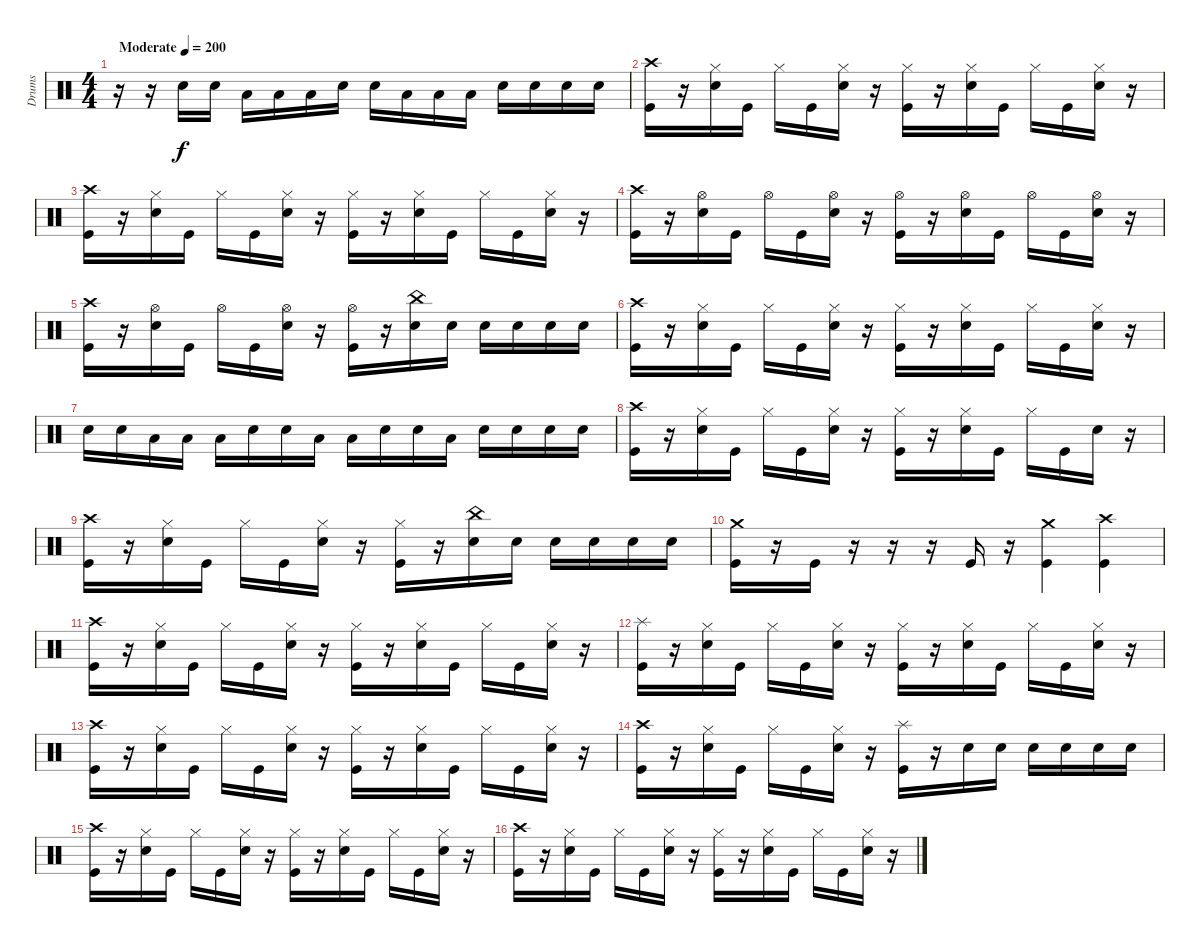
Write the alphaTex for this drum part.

\track ("Drums" "Drums") {instrument percussion}
\staff {score}
\articulation defaults
\ts (4 4)
\tempo (200 "Moderate")
\tempo 165
\tempo (200 "Moderate")
\clef neutral
\ks c
r.16{dy f} r.16 "Snare (hit) 2".16 "Snare (hit) 2".16 "Low Tom (hit)".16 "Low Tom (hit)".16 "Low Tom (hit)".16 "Snare (hit) 2".16 "Snare (hit) 2".16 "Low Tom (hit)".16 "Low Tom (hit)".16 "Low Tom (hit)".16 "Snare (hit) 2".16 "Snare (hit) 2".16 "Snare (hit) 2".16 "Snare (hit) 2".16 |
("Crash high (hit)" "Kick (hit)").16 r.16 ("Hi-Hat (closed)" "Snare (hit) 2").16 "Kick (hit)".16 "Hi-Hat (closed)".16 "Kick (hit)".16 ("Hi-Hat (closed)" "Snare (hit) 2").16 r.16 ("Hi-Hat (closed)" "Kick (hit)").16 r.16 ("Hi-Hat (closed)" "Snare (hit) 2").16 "Kick (hit)".16 "Hi-Hat (closed)".16 "Kick (hit)".16 ("Hi-Hat (closed)" "Snare (hit) 2").16 r.16 |
("Crash high (hit)" "Kick (hit)").16 r.16 ("Hi-Hat (closed)" "Snare (hit) 2").16 "Kick (hit)".16 "Hi-Hat (closed)".16 "Kick (hit)".16 ("Hi-Hat (closed)" "Snare (hit) 2").16 r.16 ("Hi-Hat (closed)" "Kick (hit)").16 r.16 ("Hi-Hat (closed)" "Snare (hit) 2").16 "Kick (hit)".16 "Hi-Hat (closed)".16 "Kick (hit)".16 ("Hi-Hat (closed)" "Snare (hit) 2").16 r.16 |
("Crash high (hit)" "Kick (hit)").16 r.16 ("Hi-Hat (open)" "Snare (hit) 2").16 "Kick (hit)".16 "Hi-Hat (open)".16 "Kick (hit)".16 ("Hi-Hat (open)" "Snare (hit) 2").16 r.16 ("Hi-Hat (open)" "Kick (hit)").16 r.16 ("Hi-Hat (open)" "Snare (hit) 2").16 "Kick (hit)".16 "Hi-Hat (open)".16 "Kick (hit)".16 ("Hi-Hat (open)" "Snare (hit) 2").16 r.16 |
("Crash high (hit)" "Kick (hit)").16 r.16 ("Hi-Hat (open)" "Snare (hit) 2").16 "Kick (hit)".16 "Hi-Hat (open)".16 "Kick (hit)".16 ("Hi-Hat (open)" "Snare (hit) 2").16 r.16 ("Hi-Hat (open)" "Kick (hit)").16 r.16 ("China (hit)" "Snare (hit) 2").16 "Snare (hit) 2".16 "Snare (hit) 2".16 "Snare (hit) 2".16 "Snare (hit) 2".16 "Snare (hit) 2".16 |
("Crash high (hit)" "Kick (hit)").16 r.16 ("Hi-Hat (closed)" "Snare (hit) 2").16 "Kick (hit)".16 "Hi-Hat (closed)".16 "Kick (hit)".16 ("Hi-Hat (closed)" "Snare (hit) 2").16 r.16 ("Hi-Hat (closed)" "Kick (hit)").16 r.16 ("Hi-Hat (closed)" "Snare (hit) 2").16 "Kick (hit)".16 "Hi-Hat (closed)".16 "Kick (hit)".16 ("Hi-Hat (closed)" "Snare (hit) 2").16 r.16 |
"Snare (hit) 2".16 "Snare (hit) 2".16 "Low Tom (hit)".16 "Low Tom (hit)".16 "Low Tom (hit)".16 "Snare (hit) 2".16 "Snare (hit) 2".16 "Low Tom (hit)".16 "Low Tom (hit)".16 "Snare (hit) 2".16 "Snare (hit) 2".16 "Low Tom (hit)".16 "Snare (hit) 2".16 "Snare (hit) 2".16 "Snare (hit) 2".16 "Snare (hit) 2".16 |
("Crash high (hit)" "Kick (hit)").16 r.16 ("Hi-Hat (closed)" "Snare (hit) 2").16 "Kick (hit)".16 "Hi-Hat (closed)".16 "Kick (hit)".16 ("Hi-Hat (closed)" "Snare (hit) 2").16 r.16 ("Hi-Hat (closed)" "Kick (hit)").16 r.16 ("Hi-Hat (closed)" "Snare (hit) 2").16 "Kick (hit)".16 "Hi-Hat (closed)".16 "Kick (hit)".16 "Snare (hit) 2".16 r.16 |
("Crash high (hit)" "Kick (hit)").16 r.16 ("Hi-Hat (closed)" "Snare (hit) 2").16 "Kick (hit)".16 "Hi-Hat (closed)".16 "Kick (hit)".16 ("Hi-Hat (closed)" "Snare (hit) 2").16 r.16 ("Hi-Hat (closed)" "Kick (hit)").16 r.16 ("China (hit)" "Snare (hit) 2").16 "Snare (hit) 2".16 "Snare (hit) 2".16 "Snare (hit) 2".16 "Snare (hit) 2".16 "Snare (hit) 2".16 |
("Crash medium (hit)" "Kick (hit)").16 r.16 "Kick (hit)".16 r.16 r.16 r.16 "Kick (hit)".16 r.16 ("Crash medium (hit)" "Kick (hit)").4 ("Crash high (hit)" "Kick (hit)").4 |
("Crash high (hit)" "Kick (hit)").16 r.16 ("Hi-Hat (closed)" "Snare (hit) 2").16 "Kick (hit)".16 "Hi-Hat (closed)".16 "Kick (hit)".16 ("Hi-Hat (closed)" "Snare (hit) 2").16 r.16 ("Hi-Hat (closed)" "Kick (hit)").16 r.16 ("Hi-Hat (closed)" "Snare (hit) 2").16 "Kick (hit)".16 "Hi-Hat (closed)".16 "Kick (hit)".16 ("Hi-Hat (closed)" "Snare (hit) 2").16 r.16 |
("Splash (hit)" "Kick (hit)").16 r.16 ("Hi-Hat (closed)" "Snare (hit) 2").16 "Kick (hit)".16 "Hi-Hat (closed)".16 "Kick (hit)".16 ("Hi-Hat (closed)" "Snare (hit) 2").16 r.16 ("Hi-Hat (closed)" "Kick (hit)").16 r.16 ("Hi-Hat (closed)" "Snare (hit) 2").16 "Kick (hit)".16 "Hi-Hat (closed)".16 "Kick (hit)".16 ("Hi-Hat (closed)" "Snare (hit) 2").16 r.16 |
("Crash high (hit)" "Kick (hit)").16 r.16 ("Hi-Hat (closed)" "Snare (hit) 2").16 "Kick (hit)".16 "Hi-Hat (closed)".16 "Kick (hit)".16 ("Hi-Hat (closed)" "Snare (hit) 2").16 r.16 ("Hi-Hat (closed)" "Kick (hit)").16 r.16 ("Hi-Hat (closed)" "Snare (hit) 2").16 "Kick (hit)".16 "Hi-Hat (closed)".16 "Kick (hit)".16 ("Hi-Hat (closed)" "Snare (hit) 2").16 r.16 |
("Crash high (hit)" "Kick (hit)").16 r.16 ("Hi-Hat (closed)" "Snare (hit) 2").16 "Kick (hit)".16 "Hi-Hat (closed)".16 "Kick (hit)".16 ("Hi-Hat (closed)" "Snare (hit) 2").16 r.16 ("Splash (hit)" "Kick (hit)").16 r.16 "Snare (hit) 2".16 "Snare (hit) 2".16 "Snare (hit) 2".16 "Snare (hit) 2".16 "Snare (hit) 2".16 "Snare (hit) 2".16 |
("Crash high (hit)" "Kick (hit)").16 r.16 ("Hi-Hat (closed)" "Snare (hit) 2").16 "Kick (hit)".16 "Hi-Hat (closed)".16 "Kick (hit)".16 ("Hi-Hat (closed)" "Snare (hit) 2").16 r.16 ("Hi-Hat (closed)" "Kick (hit)").16 r.16 ("Hi-Hat (closed)" "Snare (hit) 2").16 "Kick (hit)".16 "Hi-Hat (closed)".16 "Kick (hit)".16 ("Hi-Hat (closed)" "Snare (hit) 2").16 r.16 |
("Crash high (hit)" "Kick (hit)").16 r.16 ("Hi-Hat (closed)" "Snare (hit) 2").16 "Kick (hit)".16 "Hi-Hat (closed)".16 "Kick (hit)".16 ("Hi-Hat (closed)" "Snare (hit) 2").16 r.16 ("Hi-Hat (closed)" "Kick (hit)").16 r.16 ("Hi-Hat (closed)" "Snare (hit) 2").16 "Kick (hit)".16 "Hi-Hat (closed)".16 "Kick (hit)".16 ("Hi-Hat (closed)" "Snare (hit) 2").16 r.16
